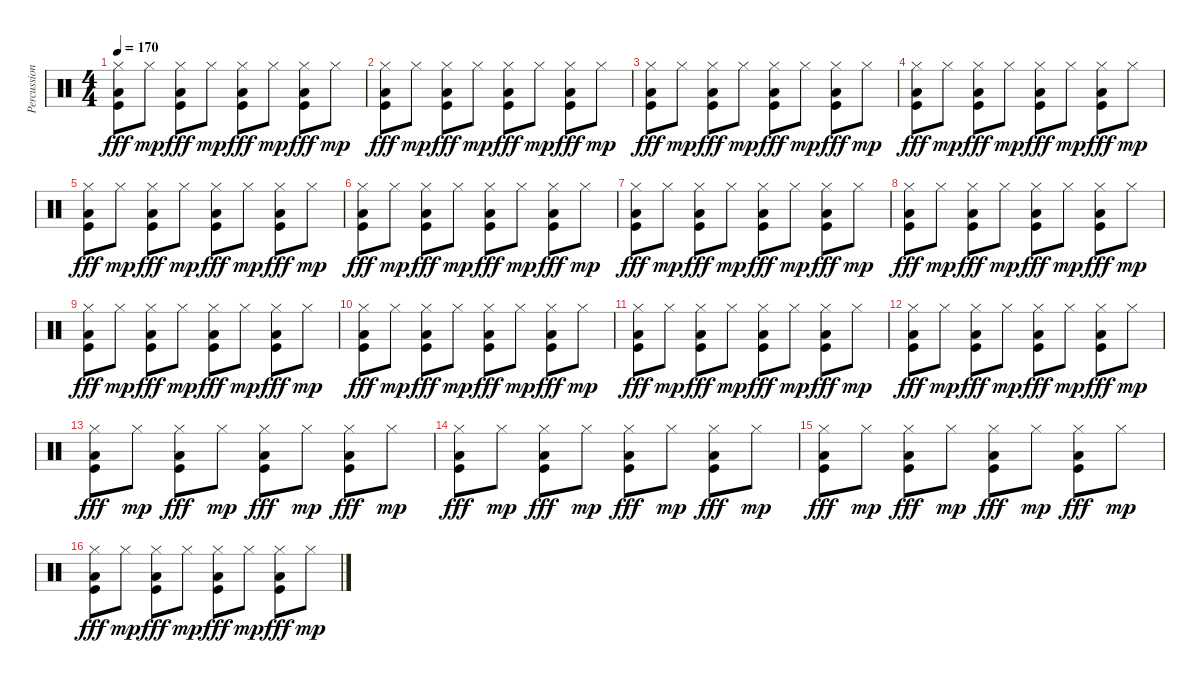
\track ("Percussion" "Percussion") {instrument percussion}
\staff {score}
\articulation defaults
\ts (4 4)
\tempo 170
\clef neutral
\ks c
("Low Floor Tom (hit)" "Hi-Hat (closed)" "Kick (hit)").8{dy fff} "Hi-Hat (closed)".8{dy mp} ("Low Floor Tom (hit)" "Hi-Hat (closed)" "Kick (hit)").8{dy fff} "Hi-Hat (closed)".8{dy mp} ("Low Floor Tom (hit)" "Hi-Hat (closed)" "Kick (hit)").8{dy fff} "Hi-Hat (closed)".8{dy mp} ("Low Floor Tom (hit)" "Hi-Hat (closed)" "Kick (hit)").8{dy fff} "Hi-Hat (closed)".8{dy mp} |
("Low Floor Tom (hit)" "Hi-Hat (closed)" "Kick (hit)").8{dy fff} "Hi-Hat (closed)".8{dy mp} ("Low Floor Tom (hit)" "Hi-Hat (closed)" "Kick (hit)").8{dy fff} "Hi-Hat (closed)".8{dy mp} ("Low Floor Tom (hit)" "Hi-Hat (closed)" "Kick (hit)").8{dy fff} "Hi-Hat (closed)".8{dy mp} ("Low Floor Tom (hit)" "Hi-Hat (closed)" "Kick (hit)").8{dy fff} "Hi-Hat (closed)".8{dy mp} |
("Low Floor Tom (hit)" "Hi-Hat (closed)" "Kick (hit)").8{dy fff} "Hi-Hat (closed)".8{dy mp} ("Low Floor Tom (hit)" "Hi-Hat (closed)" "Kick (hit)").8{dy fff} "Hi-Hat (closed)".8{dy mp} ("Low Floor Tom (hit)" "Hi-Hat (closed)" "Kick (hit)").8{dy fff} "Hi-Hat (closed)".8{dy mp} ("Low Floor Tom (hit)" "Hi-Hat (closed)" "Kick (hit)").8{dy fff} "Hi-Hat (closed)".8{dy mp} |
("Low Floor Tom (hit)" "Hi-Hat (closed)" "Kick (hit)").8{dy fff} "Hi-Hat (closed)".8{dy mp} ("Low Floor Tom (hit)" "Hi-Hat (closed)" "Kick (hit)").8{dy fff} "Hi-Hat (closed)".8{dy mp} ("Low Floor Tom (hit)" "Hi-Hat (closed)" "Kick (hit)").8{dy fff} "Hi-Hat (closed)".8{dy mp} ("Low Floor Tom (hit)" "Hi-Hat (closed)" "Kick (hit)").8{dy fff} "Hi-Hat (closed)".8{dy mp} |
("Low Floor Tom (hit)" "Hi-Hat (closed)" "Kick (hit)").8{dy fff} "Hi-Hat (closed)".8{dy mp} ("Low Floor Tom (hit)" "Hi-Hat (closed)" "Kick (hit)").8{dy fff} "Hi-Hat (closed)".8{dy mp} ("Low Floor Tom (hit)" "Hi-Hat (closed)" "Kick (hit)").8{dy fff} "Hi-Hat (closed)".8{dy mp} ("Low Floor Tom (hit)" "Hi-Hat (closed)" "Kick (hit)").8{dy fff} "Hi-Hat (closed)".8{dy mp} |
("Low Floor Tom (hit)" "Hi-Hat (closed)" "Kick (hit)").8{dy fff} "Hi-Hat (closed)".8{dy mp} ("Low Floor Tom (hit)" "Hi-Hat (closed)" "Kick (hit)").8{dy fff} "Hi-Hat (closed)".8{dy mp} ("Low Floor Tom (hit)" "Hi-Hat (closed)" "Kick (hit)").8{dy fff} "Hi-Hat (closed)".8{dy mp} ("Low Floor Tom (hit)" "Hi-Hat (closed)" "Kick (hit)").8{dy fff} "Hi-Hat (closed)".8{dy mp} |
("Low Floor Tom (hit)" "Hi-Hat (closed)" "Kick (hit)").8{dy fff} "Hi-Hat (closed)".8{dy mp} ("Low Floor Tom (hit)" "Hi-Hat (closed)" "Kick (hit)").8{dy fff} "Hi-Hat (closed)".8{dy mp} ("Low Floor Tom (hit)" "Hi-Hat (closed)" "Kick (hit)").8{dy fff} "Hi-Hat (closed)".8{dy mp} ("Low Floor Tom (hit)" "Hi-Hat (closed)" "Kick (hit)").8{dy fff} "Hi-Hat (closed)".8{dy mp} |
("Low Floor Tom (hit)" "Hi-Hat (closed)" "Kick (hit)").8{dy fff} "Hi-Hat (closed)".8{dy mp} ("Low Floor Tom (hit)" "Hi-Hat (closed)" "Kick (hit)").8{dy fff} "Hi-Hat (closed)".8{dy mp} ("Low Floor Tom (hit)" "Hi-Hat (closed)" "Kick (hit)").8{dy fff} "Hi-Hat (closed)".8{dy mp} ("Low Floor Tom (hit)" "Hi-Hat (closed)" "Kick (hit)").8{dy fff} "Hi-Hat (closed)".8{dy mp} |
("Low Floor Tom (hit)" "Hi-Hat (closed)" "Kick (hit)").8{dy fff} "Hi-Hat (closed)".8{dy mp} ("Low Floor Tom (hit)" "Hi-Hat (closed)" "Kick (hit)").8{dy fff} "Hi-Hat (closed)".8{dy mp} ("Low Floor Tom (hit)" "Hi-Hat (closed)" "Kick (hit)").8{dy fff} "Hi-Hat (closed)".8{dy mp} ("Low Floor Tom (hit)" "Hi-Hat (closed)" "Kick (hit)").8{dy fff} "Hi-Hat (closed)".8{dy mp} |
("Low Floor Tom (hit)" "Hi-Hat (closed)" "Kick (hit)").8{dy fff} "Hi-Hat (closed)".8{dy mp} ("Low Floor Tom (hit)" "Hi-Hat (closed)" "Kick (hit)").8{dy fff} "Hi-Hat (closed)".8{dy mp} ("Low Floor Tom (hit)" "Hi-Hat (closed)" "Kick (hit)").8{dy fff} "Hi-Hat (closed)".8{dy mp} ("Low Floor Tom (hit)" "Hi-Hat (closed)" "Kick (hit)").8{dy fff} "Hi-Hat (closed)".8{dy mp} |
("Low Floor Tom (hit)" "Hi-Hat (closed)" "Kick (hit)").8{dy fff} "Hi-Hat (closed)".8{dy mp} ("Low Floor Tom (hit)" "Hi-Hat (closed)" "Kick (hit)").8{dy fff} "Hi-Hat (closed)".8{dy mp} ("Low Floor Tom (hit)" "Hi-Hat (closed)" "Kick (hit)").8{dy fff} "Hi-Hat (closed)".8{dy mp} ("Low Floor Tom (hit)" "Hi-Hat (closed)" "Kick (hit)").8{dy fff} "Hi-Hat (closed)".8{dy mp} |
("Low Floor Tom (hit)" "Hi-Hat (closed)" "Kick (hit)").8{dy fff} "Hi-Hat (closed)".8{dy mp} ("Low Floor Tom (hit)" "Hi-Hat (closed)" "Kick (hit)").8{dy fff} "Hi-Hat (closed)".8{dy mp} ("Low Floor Tom (hit)" "Hi-Hat (closed)" "Kick (hit)").8{dy fff} "Hi-Hat (closed)".8{dy mp} ("Low Floor Tom (hit)" "Hi-Hat (closed)" "Kick (hit)").8{dy fff} "Hi-Hat (closed)".8{dy mp} |
("Low Floor Tom (hit)" "Hi-Hat (closed)" "Kick (hit)").8{dy fff} "Hi-Hat (closed)".8{dy mp} ("Low Floor Tom (hit)" "Hi-Hat (closed)" "Kick (hit)").8{dy fff} "Hi-Hat (closed)".8{dy mp} ("Low Floor Tom (hit)" "Hi-Hat (closed)" "Kick (hit)").8{dy fff} "Hi-Hat (closed)".8{dy mp} ("Low Floor Tom (hit)" "Hi-Hat (closed)" "Kick (hit)").8{dy fff} "Hi-Hat (closed)".8{dy mp} |
("Low Floor Tom (hit)" "Hi-Hat (closed)" "Kick (hit)").8{dy fff} "Hi-Hat (closed)".8{dy mp} ("Low Floor Tom (hit)" "Hi-Hat (closed)" "Kick (hit)").8{dy fff} "Hi-Hat (closed)".8{dy mp} ("Low Floor Tom (hit)" "Hi-Hat (closed)" "Kick (hit)").8{dy fff} "Hi-Hat (closed)".8{dy mp} ("Low Floor Tom (hit)" "Hi-Hat (closed)" "Kick (hit)").8{dy fff} "Hi-Hat (closed)".8{dy mp} |
("Low Floor Tom (hit)" "Hi-Hat (closed)" "Kick (hit)").8{dy fff} "Hi-Hat (closed)".8{dy mp} ("Low Floor Tom (hit)" "Hi-Hat (closed)" "Kick (hit)").8{dy fff} "Hi-Hat (closed)".8{dy mp} ("Low Floor Tom (hit)" "Hi-Hat (closed)" "Kick (hit)").8{dy fff} "Hi-Hat (closed)".8{dy mp} ("Low Floor Tom (hit)" "Hi-Hat (closed)" "Kick (hit)").8{dy fff} "Hi-Hat (closed)".8{dy mp} |
("Low Floor Tom (hit)" "Hi-Hat (closed)" "Kick (hit)").8{dy fff} "Hi-Hat (closed)".8{dy mp} ("Low Floor Tom (hit)" "Hi-Hat (closed)" "Kick (hit)").8{dy fff} "Hi-Hat (closed)".8{dy mp} ("Low Floor Tom (hit)" "Hi-Hat (closed)" "Kick (hit)").8{dy fff} "Hi-Hat (closed)".8{dy mp} ("Low Floor Tom (hit)" "Hi-Hat (closed)" "Kick (hit)").8{dy fff} "Hi-Hat (closed)".8{dy mp}
